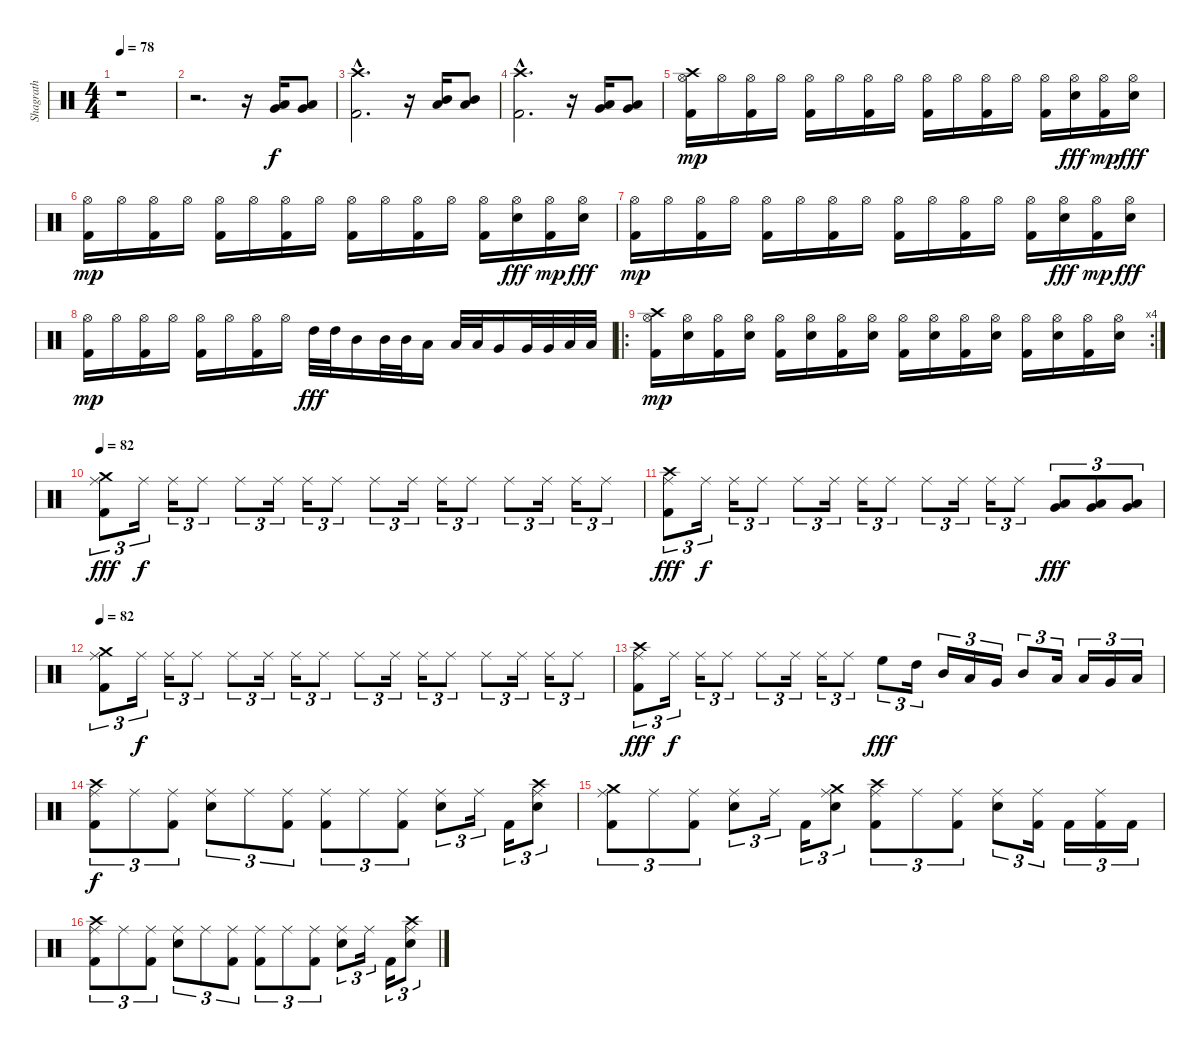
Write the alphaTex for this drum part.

\track ("Shagrath" "Shagrath") {instrument percussion}
\staff {score}
\articulation defaults
\ts (4 4)
\tempo 78
\clef neutral
\ks c
r.1{dy f} |
r.2{d} r.16 ("Low Tom (hit)" "Very Low Tom (hit)").16 ("Low Tom (hit)" "Very Low Tom (hit)").8 |
("Crash high (hit)"{hac} "Kick (hit) 2"{hac}).2{d} r.16 ("Low Tom (hit)" "Mid Tom (hit)").16 ("Low Tom (hit)" "Mid Tom (hit)").8 |
("Crash high (hit)"{hac} "Kick (hit) 2"{hac}).2{d} r.16 ("Low Tom (hit)" "Very Low Tom (hit)").16 ("Low Tom (hit)" "Very Low Tom (hit)").8 |
("Crash high (hit)" "Hi-Hat (open)" "Kick (hit) 2").16{dy mp} "Hi-Hat (open)".16 ("Hi-Hat (open)" "Kick (hit) 2").16 "Hi-Hat (open)".16 ("Hi-Hat (open)" "Kick (hit) 2").16 "Hi-Hat (open)".16 ("Hi-Hat (open)" "Kick (hit) 2").16 "Hi-Hat (open)".16 ("Hi-Hat (open)" "Kick (hit) 2").16 "Hi-Hat (open)".16 ("Hi-Hat (open)" "Kick (hit) 2").16 "Hi-Hat (open)".16 ("Hi-Hat (open)" "Kick (hit) 2").16 ("Hi-Hat (open)" "Electric Snare (hit)").16{dy fff} ("Hi-Hat (open)" "Kick (hit) 2").16{dy mp} ("Hi-Hat (open)" "Electric Snare (hit)").16{dy fff} |
("Hi-Hat (open)" "Kick (hit) 2").16{dy mp} "Hi-Hat (open)".16 ("Hi-Hat (open)" "Kick (hit) 2").16 "Hi-Hat (open)".16 ("Hi-Hat (open)" "Kick (hit) 2").16 "Hi-Hat (open)".16 ("Hi-Hat (open)" "Kick (hit) 2").16 "Hi-Hat (open)".16 ("Hi-Hat (open)" "Kick (hit) 2").16 "Hi-Hat (open)".16 ("Hi-Hat (open)" "Kick (hit) 2").16 "Hi-Hat (open)".16 ("Hi-Hat (open)" "Kick (hit) 2").16 ("Hi-Hat (open)" "Electric Snare (hit)").16{dy fff} ("Hi-Hat (open)" "Kick (hit) 2").16{dy mp} ("Hi-Hat (open)" "Electric Snare (hit)").16{dy fff} |
("Hi-Hat (open)" "Kick (hit) 2").16{dy mp} "Hi-Hat (open)".16 ("Hi-Hat (open)" "Kick (hit) 2").16 "Hi-Hat (open)".16 ("Hi-Hat (open)" "Kick (hit) 2").16 "Hi-Hat (open)".16 ("Hi-Hat (open)" "Kick (hit) 2").16 "Hi-Hat (open)".16 ("Hi-Hat (open)" "Kick (hit) 2").16 "Hi-Hat (open)".16 ("Hi-Hat (open)" "Kick (hit) 2").16 "Hi-Hat (open)".16 ("Hi-Hat (open)" "Kick (hit) 2").16 ("Hi-Hat (open)" "Electric Snare (hit)").16{dy fff} ("Hi-Hat (open)" "Kick (hit) 2").16{dy mp} ("Hi-Hat (open)" "Electric Snare (hit)").16{dy fff} |
("Hi-Hat (open)" "Kick (hit) 2").16{dy mp} "Hi-Hat (open)".16 ("Hi-Hat (open)" "Kick (hit) 2").16 "Hi-Hat (open)".16 ("Hi-Hat (open)" "Kick (hit) 2").16 "Hi-Hat (open)".16 ("Hi-Hat (open)" "Kick (hit) 2").16 "Hi-Hat (open)".16 "High Tom (hit)".32{dy fff} "High Tom (hit)".32 "Mid Tom (hit)".16 "Mid Tom (hit)".32 "Mid Tom (hit)".32 "Low Tom (hit)".16 "Low Tom (hit)".32 "Low Tom (hit)".32 "Very Low Tom (hit)".16 "Very Low Tom (hit)".32 "Very Low Tom (hit)".32 "Low Floor Tom (hit)".32 "Low Floor Tom (hit)".32 |
\ro
\rc 4
("Crash high (hit)" "Hi-Hat (open)" "Kick (hit) 2").16{dy mp} ("Hi-Hat (open)" "Electric Snare (hit)").16 ("Hi-Hat (open)" "Kick (hit) 2").16 ("Hi-Hat (open)" "Electric Snare (hit)").16 ("Hi-Hat (open)" "Kick (hit) 2").16 ("Hi-Hat (open)" "Electric Snare (hit)").16 ("Hi-Hat (open)" "Kick (hit) 2").16 ("Hi-Hat (open)" "Electric Snare (hit)").16 ("Hi-Hat (open)" "Kick (hit) 2").16 ("Hi-Hat (open)" "Electric Snare (hit)").16 ("Hi-Hat (open)" "Kick (hit) 2").16 ("Hi-Hat (open)" "Electric Snare (hit)").16 ("Hi-Hat (open)" "Kick (hit) 2").16 ("Hi-Hat (open)" "Electric Snare (hit)").16 ("Hi-Hat (open)" "Kick (hit) 2").16 ("Hi-Hat (open)" "Electric Snare (hit)").16 |
\tempo 82
("Crash medium (hit)" "Ride (middle)" "Kick (hit) 2").8{tu (3 2) dy fff} "Ride (middle)".16{tu (3 2) dy f} "Ride (middle)".16{tu (3 2)} "Ride (middle)".8{tu (3 2)} "Ride (middle)".8{tu (3 2)} "Ride (middle)".16{tu (3 2)} "Ride (middle)".16{tu (3 2)} "Ride (middle)".8{tu (3 2)} "Ride (middle)".8{tu (3 2)} "Ride (middle)".16{tu (3 2)} "Ride (middle)".16{tu (3 2)} "Ride (middle)".8{tu (3 2)} "Ride (middle)".8{tu (3 2)} "Ride (middle)".16{tu (3 2)} "Ride (middle)".16{tu (3 2)} "Ride (middle)".8{tu (3 2)} |
("Crash high (hit)" "Ride (middle)" "Kick (hit) 2").8{tu (3 2) dy fff} "Ride (middle)".16{tu (3 2) dy f} "Ride (middle)".16{tu (3 2)} "Ride (middle)".8{tu (3 2)} "Ride (middle)".8{tu (3 2)} "Ride (middle)".16{tu (3 2)} "Ride (middle)".16{tu (3 2)} "Ride (middle)".8{tu (3 2)} "Ride (middle)".8{tu (3 2)} "Ride (middle)".16{tu (3 2)} "Ride (middle)".16{tu (3 2)} "Ride (middle)".8{tu (3 2)} ("Low Tom (hit)" "Very Low Tom (hit)").8{tu (3 2) dy fff} ("Low Tom (hit)" "Very Low Tom (hit)").8{tu (3 2)} ("Low Tom (hit)" "Very Low Tom (hit)").8{tu (3 2)} |
\tempo 82
("Crash medium (hit)" "Ride (middle)" "Kick (hit) 2").8{tu (3 2)} "Ride (middle)".16{tu (3 2) dy f} "Ride (middle)".16{tu (3 2)} "Ride (middle)".8{tu (3 2)} "Ride (middle)".8{tu (3 2)} "Ride (middle)".16{tu (3 2)} "Ride (middle)".16{tu (3 2)} "Ride (middle)".8{tu (3 2)} "Ride (middle)".8{tu (3 2)} "Ride (middle)".16{tu (3 2)} "Ride (middle)".16{tu (3 2)} "Ride (middle)".8{tu (3 2)} "Ride (middle)".8{tu (3 2)} "Ride (middle)".16{tu (3 2)} "Ride (middle)".16{tu (3 2)} "Ride (middle)".8{tu (3 2)} |
("Crash high (hit)" "Ride (middle)" "Kick (hit) 2").8{tu (3 2) dy fff} "Ride (middle)".16{tu (3 2) dy f} "Ride (middle)".16{tu (3 2)} "Ride (middle)".8{tu (3 2)} "Ride (middle)".8{tu (3 2)} "Ride (middle)".16{tu (3 2)} "Ride (middle)".16{tu (3 2)} "Ride (middle)".8{tu (3 2)} "High Floor Tom (hit)".8{tu (3 2) dy fff} "High Tom (hit)".16{tu (3 2)} "Mid Tom (hit)".16{tu (3 2)} "Low Tom (hit)".16{tu (3 2)} "Very Low Tom (hit)".16{tu (3 2)} "Mid Tom (hit)".8{tu (3 2)} "Low Tom (hit)".16{tu (3 2)} "Low Tom (hit)".16{tu (3 2)} "Very Low Tom (hit)".16{tu (3 2)} "Low Floor Tom (hit)".16{tu (3 2)} |
("Crash high (hit)" "Ride (middle)" "Kick (hit) 2").8{tu (3 2) dy f} "Ride (middle)".8{tu (3 2)} ("Ride (middle)" "Kick (hit) 2").8{tu (3 2)} ("Ride (middle)" "Electric Snare (hit)").8{tu (3 2)} "Ride (middle)".8{tu (3 2)} ("Ride (middle)" "Kick (hit) 2").8{tu (3 2)} ("Ride (middle)" "Kick (hit) 2").8{tu (3 2)} "Ride (middle)".8{tu (3 2)} ("Ride (middle)" "Kick (hit) 2").8{tu (3 2)} ("Ride (middle)" "Electric Snare (hit)").8{tu (3 2)} "Ride (middle)".16{tu (3 2)} "Kick (hit) 2".16{tu (3 2)} ("Crash high (hit)" "Ride (middle)" "Electric Snare (hit)").8{tu (3 2)} |
("Crash medium (hit)" "Ride (middle)" "Kick (hit) 2").8{tu (3 2)} "Ride (middle)".8{tu (3 2)} ("Ride (middle)" "Kick (hit) 2").8{tu (3 2)} ("Ride (middle)" "Electric Snare (hit)").8{tu (3 2)} "Ride (middle)".16{tu (3 2)} "Kick (hit) 2".16{tu (3 2)} ("Crash medium (hit)" "Ride (middle)" "Electric Snare (hit)").8{tu (3 2)} ("Crash high (hit)" "Ride (middle)" "Kick (hit) 2").8{tu (3 2)} "Ride (middle)".8{tu (3 2)} ("Ride (middle)" "Kick (hit) 2").8{tu (3 2)} ("Ride (middle)" "Electric Snare (hit)").8{tu (3 2)} ("Ride (middle)" "Kick (hit) 2").16{tu (3 2)} "Kick (hit) 2".16{tu (3 2)} ("Ride (middle)" "Kick (hit) 2").16{tu (3 2)} "Kick (hit) 2".16{tu (3 2)} |
("Crash high (hit)" "Ride (middle)" "Kick (hit) 2").8{tu (3 2)} "Ride (middle)".8{tu (3 2)} ("Ride (middle)" "Kick (hit) 2").8{tu (3 2)} ("Ride (middle)" "Electric Snare (hit)").8{tu (3 2)} "Ride (middle)".8{tu (3 2)} ("Ride (middle)" "Kick (hit) 2").8{tu (3 2)} ("Ride (middle)" "Kick (hit) 2").8{tu (3 2)} "Ride (middle)".8{tu (3 2)} ("Ride (middle)" "Kick (hit) 2").8{tu (3 2)} ("Ride (middle)" "Electric Snare (hit)").8{tu (3 2)} "Ride (middle)".16{tu (3 2)} "Kick (hit) 2".16{tu (3 2)} ("Crash high (hit)" "Ride (middle)" "Electric Snare (hit)").8{tu (3 2)}
